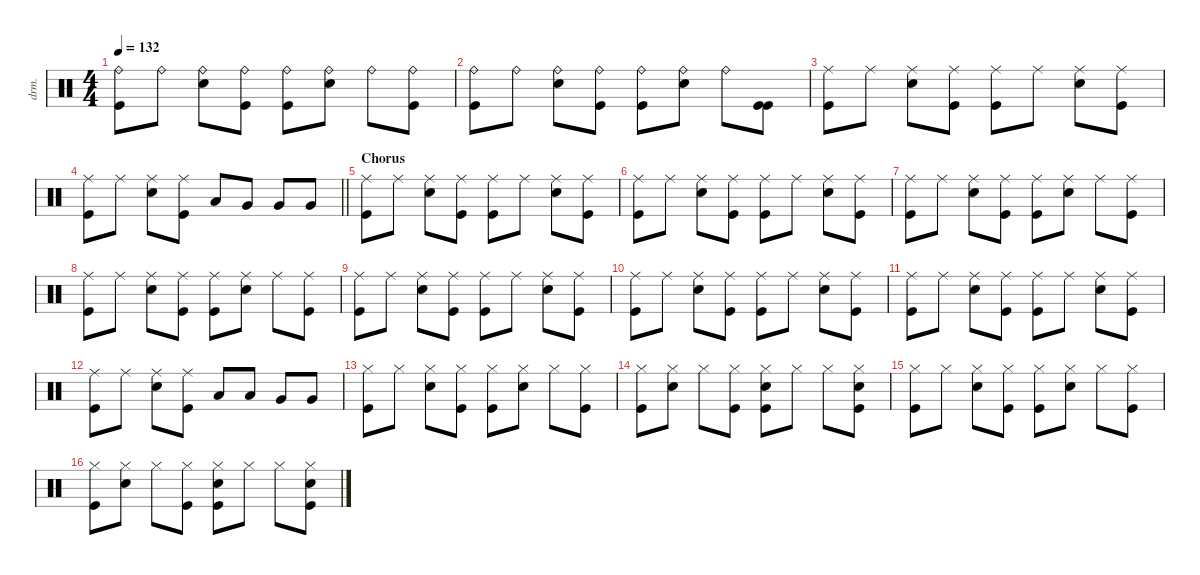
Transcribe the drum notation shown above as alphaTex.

\defaultSystemsLayout 4
\hideDynamics
\bracketExtendMode nobrackets
\otherSystemsTrackNameOrientation horizontal
\track ("Drums" "drm.") {instrument percussion}
\staff {score}
\articulation defaults
\ts (4 4)
\tempo 132
\clef neutral
\ks c
("Ride (bell)" "Kick (hit)").8{dy f beam Down} "Ride (bell)".8{beam Down} ("Ride (bell)" "Snare (hit) 2").8{beam Down} ("Ride (bell)" "Kick (hit)").8{beam Down} ("Ride (bell)" "Kick (hit)").8{beam Down} ("Ride (bell)" "Snare (hit) 2").8{beam Down} "Ride (bell)".8{beam Down} ("Ride (bell)" "Kick (hit)").8{beam Down} |
("Ride (bell)" "Kick (hit)").8{beam Down} "Ride (bell)".8{beam Down} ("Ride (bell)" "Snare (hit) 2").8{beam Down} ("Ride (bell)" "Kick (hit)").8{beam Down} ("Ride (bell)" "Kick (hit)").8{beam Down} ("Ride (bell)" "Snare (hit) 2").8{beam Down} "Ride (bell)".8{beam Down} ("Kick (hit)" "Kick (hit)").8{beam Down} |
("Ride (middle)" "Kick (hit)").8{beam Down} "Ride (middle)".8{beam Down} ("Ride (middle)" "Snare (hit) 2").8{beam Down} ("Ride (middle)" "Kick (hit)").8{beam Down} ("Ride (middle)" "Kick (hit)").8{beam Down} "Ride (middle)".8{beam Down} ("Ride (middle)" "Snare (hit) 2").8{beam Down} ("Ride (middle)" "Kick (hit)").8{beam Down} |
\barLineRight lightlight
("Ride (middle)" "Kick (hit)").8{beam Down} "Ride (middle)".8{beam Down} ("Ride (middle)" "Snare (hit) 2").8{beam Down} ("Ride (middle)" "Kick (hit)").8{beam Down} "Low Tom (hit)".8{beam Up} "Very Low Tom (hit)".8{beam Up} "Very Low Tom (hit)".8{beam Up} "Very Low Tom (hit)".8{beam Up} |
\section ("" "Chorus")
("Ride (middle)" "Kick (hit)").8{beam Down} "Ride (middle)".8{beam Down} ("Ride (middle)" "Snare (hit) 2").8{beam Down} ("Ride (middle)" "Kick (hit)").8{beam Down} ("Ride (middle)" "Kick (hit)").8{beam Down} "Ride (middle)".8{beam Down} ("Ride (middle)" "Snare (hit) 2").8{beam Down} ("Ride (middle)" "Kick (hit)").8{beam Down} |
("Ride (middle)" "Kick (hit)").8{beam Down} "Ride (middle)".8{beam Down} ("Ride (middle)" "Snare (hit) 2").8{beam Down} ("Ride (middle)" "Kick (hit)").8{beam Down} ("Ride (middle)" "Kick (hit)").8{beam Down} "Ride (middle)".8{beam Down} ("Ride (middle)" "Snare (hit) 2").8{beam Down} ("Ride (middle)" "Kick (hit)").8{beam Down} |
("Ride (middle)" "Kick (hit)").8{beam Down} "Ride (middle)".8{beam Down} ("Ride (middle)" "Snare (hit) 2").8{beam Down} ("Ride (middle)" "Kick (hit)").8{beam Down} ("Ride (middle)" "Kick (hit)").8{beam Down} ("Ride (middle)" "Snare (hit) 2").8{beam Down} "Ride (middle)".8{beam Down} ("Ride (middle)" "Kick (hit)").8{beam Down} |
("Ride (middle)" "Kick (hit)").8{beam Down} "Ride (middle)".8{beam Down} ("Ride (middle)" "Snare (hit) 2").8{beam Down} ("Ride (middle)" "Kick (hit)").8{beam Down} ("Ride (middle)" "Kick (hit)").8{beam Down} ("Ride (middle)" "Snare (hit) 2").8{beam Down} "Ride (middle)".8{beam Down} ("Ride (middle)" "Kick (hit)").8{beam Down} |
("Ride (middle)" "Kick (hit)").8{beam Down} "Ride (middle)".8{beam Down} ("Ride (middle)" "Snare (hit) 2").8{beam Down} ("Ride (middle)" "Kick (hit)").8{beam Down} ("Ride (middle)" "Kick (hit)").8{beam Down} "Ride (middle)".8{beam Down} ("Ride (middle)" "Snare (hit) 2").8{beam Down} ("Ride (middle)" "Kick (hit)").8{beam Down} |
("Ride (middle)" "Kick (hit)").8{beam Down} "Ride (middle)".8{beam Down} ("Ride (middle)" "Snare (hit) 2").8{beam Down} ("Ride (middle)" "Kick (hit)").8{beam Down} ("Ride (middle)" "Kick (hit)").8{beam Down} "Ride (middle)".8{beam Down} ("Ride (middle)" "Snare (hit) 2").8{beam Down} ("Ride (middle)" "Kick (hit)").8{beam Down} |
("Ride (middle)" "Kick (hit)").8{beam Down} "Ride (middle)".8{beam Down} ("Ride (middle)" "Snare (hit) 2").8{beam Down} ("Ride (middle)" "Kick (hit)").8{beam Down} ("Ride (middle)" "Kick (hit)").8{beam Down} "Ride (middle)".8{beam Down} ("Ride (middle)" "Snare (hit) 2").8{beam Down} ("Ride (middle)" "Kick (hit)").8{beam Down} |
("Ride (middle)" "Kick (hit)").8{beam Down} "Ride (middle)".8{beam Down} ("Ride (middle)" "Snare (hit) 2").8{beam Down} ("Ride (middle)" "Kick (hit)").8{beam Down} "Low Tom (hit)".8{beam Up} "Low Tom (hit)".8{beam Up} "Very Low Tom (hit)".8{beam Up} "Very Low Tom (hit)".8{beam Up} |
("Hi-Hat (closed)" "Kick (hit)").8{beam Down} "Hi-Hat (closed)".8{beam Down} ("Hi-Hat (closed)" "Snare (hit) 2").8{beam Down} ("Hi-Hat (closed)" "Kick (hit)").8{beam Down} ("Hi-Hat (closed)" "Kick (hit)").8{beam Down} ("Hi-Hat (closed)" "Snare (hit) 2").8{beam Down} "Hi-Hat (closed)".8{beam Down} ("Hi-Hat (closed)" "Kick (hit)").8{beam Down} |
("Hi-Hat (closed)" "Kick (hit)").8{beam Down} ("Hi-Hat (closed)" "Snare (hit) 2").8{beam Down} "Hi-Hat (closed)".8{beam Down} ("Hi-Hat (closed)" "Kick (hit)").8{beam Down} ("Hi-Hat (closed)" "Snare (hit) 2" "Kick (hit)").8{beam Down} "Hi-Hat (closed)".8{beam Down} "Hi-Hat (closed)".8{beam Down} ("Hi-Hat (closed)" "Snare (hit) 2" "Kick (hit)").8{beam Down} |
("Hi-Hat (closed)" "Kick (hit)").8{beam Down} "Hi-Hat (closed)".8{beam Down} ("Hi-Hat (closed)" "Snare (hit) 2").8{beam Down} ("Hi-Hat (closed)" "Kick (hit)").8{beam Down} ("Hi-Hat (closed)" "Kick (hit)").8{beam Down} ("Hi-Hat (closed)" "Snare (hit) 2").8{beam Down} "Hi-Hat (closed)".8{beam Down} ("Hi-Hat (closed)" "Kick (hit)").8{beam Down} |
("Hi-Hat (closed)" "Kick (hit)").8{beam Down} ("Hi-Hat (closed)" "Snare (hit) 2").8{beam Down} "Hi-Hat (closed)".8{beam Down} ("Hi-Hat (closed)" "Kick (hit)").8{beam Down} ("Hi-Hat (closed)" "Snare (hit) 2" "Kick (hit)").8{beam Down} "Hi-Hat (closed)".8{beam Down} "Hi-Hat (closed)".8{beam Down} ("Hi-Hat (closed)" "Snare (hit) 2" "Kick (hit)").8{beam Down}
